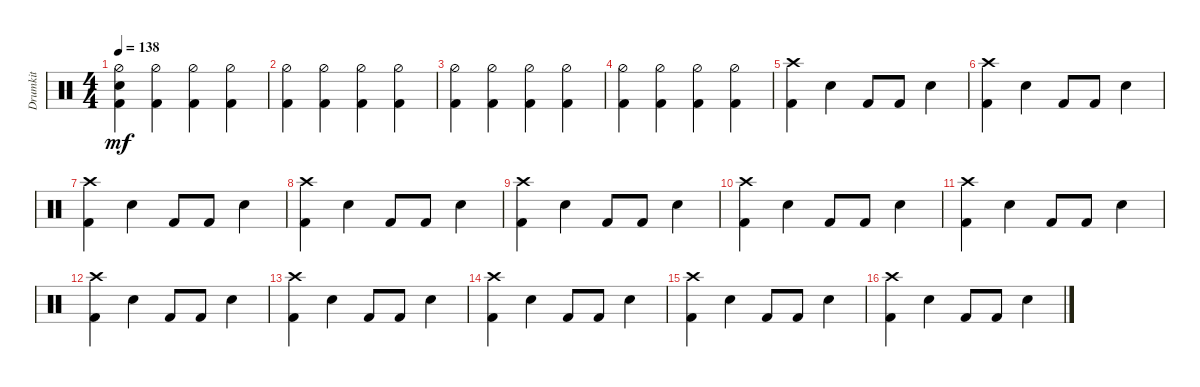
\track ("Drumkit" "Drumkit") {instrument percussion}
\staff {score}
\articulation defaults
\ts (4 4)
\tempo 138
\clef neutral
\ks c
("Kick (hit) 2" "Snare (hit) 2" "Hi-Hat (half)").4{dy mf} ("Kick (hit) 2" "Hi-Hat (half)").4 ("Kick (hit) 2" "Hi-Hat (half)").4 ("Kick (hit) 2" "Hi-Hat (half)").4 |
("Kick (hit) 2" "Hi-Hat (half)").4 ("Kick (hit) 2" "Hi-Hat (half)").4 ("Kick (hit) 2" "Hi-Hat (half)").4 ("Kick (hit) 2" "Hi-Hat (half)").4 |
("Kick (hit) 2" "Hi-Hat (half)").4 ("Kick (hit) 2" "Hi-Hat (half)").4 ("Kick (hit) 2" "Hi-Hat (half)").4 ("Kick (hit) 2" "Hi-Hat (half)").4 |
("Kick (hit) 2" "Hi-Hat (half)").4 ("Kick (hit) 2" "Hi-Hat (half)").4 ("Kick (hit) 2" "Hi-Hat (half)").4 ("Kick (hit) 2" "Hi-Hat (half)").4 |
("Crash high (hit)" "Kick (hit) 2").4 "Snare (hit) 2".4 "Kick (hit) 2".8 "Kick (hit) 2".8 "Snare (hit) 2".4 |
("Crash high (hit)" "Kick (hit) 2").4 "Snare (hit) 2".4 "Kick (hit) 2".8 "Kick (hit) 2".8 "Snare (hit) 2".4 |
("Crash high (hit)" "Kick (hit) 2").4 "Snare (hit) 2".4 "Kick (hit) 2".8 "Kick (hit) 2".8 "Snare (hit) 2".4 |
("Crash high (hit)" "Kick (hit) 2").4 "Snare (hit) 2".4 "Kick (hit) 2".8 "Kick (hit) 2".8 "Snare (hit) 2".4 |
("Crash high (hit)" "Kick (hit) 2").4 "Snare (hit) 2".4 "Kick (hit) 2".8 "Kick (hit) 2".8 "Snare (hit) 2".4 |
("Crash high (hit)" "Kick (hit) 2").4 "Snare (hit) 2".4 "Kick (hit) 2".8 "Kick (hit) 2".8 "Snare (hit) 2".4 |
("Crash high (hit)" "Kick (hit) 2").4 "Snare (hit) 2".4 "Kick (hit) 2".8 "Kick (hit) 2".8 "Snare (hit) 2".4 |
("Crash high (hit)" "Kick (hit) 2").4 "Snare (hit) 2".4 "Kick (hit) 2".8 "Kick (hit) 2".8 "Snare (hit) 2".4 |
("Crash high (hit)" "Kick (hit) 2").4 "Snare (hit) 2".4 "Kick (hit) 2".8 "Kick (hit) 2".8 "Snare (hit) 2".4 |
("Crash high (hit)" "Kick (hit) 2").4 "Snare (hit) 2".4 "Kick (hit) 2".8 "Kick (hit) 2".8 "Snare (hit) 2".4 |
("Crash high (hit)" "Kick (hit) 2").4 "Snare (hit) 2".4 "Kick (hit) 2".8 "Kick (hit) 2".8 "Snare (hit) 2".4 |
("Crash high (hit)" "Kick (hit) 2").4 "Snare (hit) 2".4 "Kick (hit) 2".8 "Kick (hit) 2".8 "Snare (hit) 2".4
